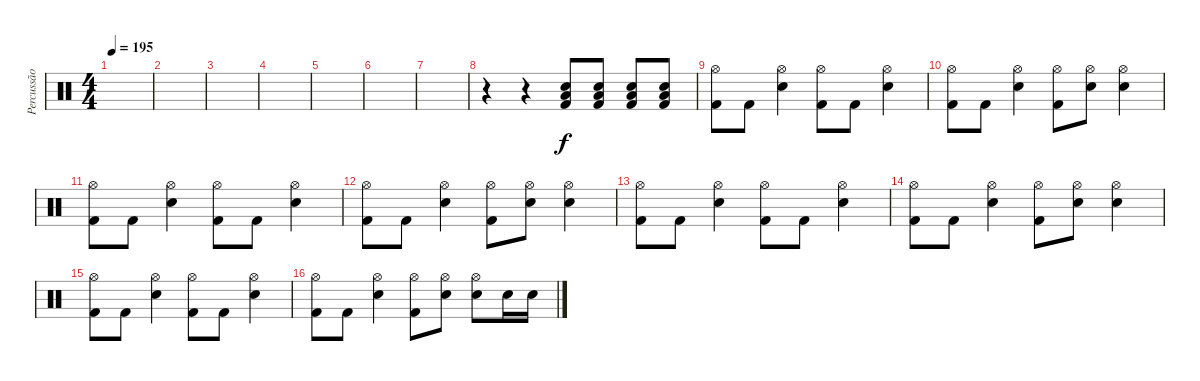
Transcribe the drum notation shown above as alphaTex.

\track ("Percussão" "Percussão") {instrument percussion}
\staff {score}
\articulation defaults
\ts (4 4)
\tempo 195
\clef neutral
\ks c
|
|
|
|
|
|
|
r.4 r.4 ("Low Floor Tom (hit)" "Electric Snare (hit)" "Kick (hit) 2").8 ("Low Floor Tom (hit)" "Electric Snare (hit)" "Kick (hit) 2").8 ("Low Floor Tom (hit)" "Electric Snare (hit)" "Kick (hit) 2").8 ("Low Floor Tom (hit)" "Electric Snare (hit)" "Kick (hit) 2").8 |
("Hi-Hat (open)" "Kick (hit) 2").8 "Kick (hit) 2".8 ("Hi-Hat (open)" "Electric Snare (hit)").4 ("Hi-Hat (open)" "Kick (hit) 2").8 "Kick (hit) 2".8 ("Hi-Hat (open)" "Electric Snare (hit)").4 |
("Hi-Hat (open)" "Kick (hit) 2").8 "Kick (hit) 2".8 ("Hi-Hat (open)" "Electric Snare (hit)").4 ("Hi-Hat (open)" "Kick (hit) 2").8 ("Hi-Hat (open)" "Electric Snare (hit)").8 ("Hi-Hat (open)" "Electric Snare (hit)").4 |
("Hi-Hat (open)" "Kick (hit) 2").8 "Kick (hit) 2".8 ("Hi-Hat (open)" "Electric Snare (hit)").4 ("Hi-Hat (open)" "Kick (hit) 2").8 "Kick (hit) 2".8 ("Hi-Hat (open)" "Electric Snare (hit)").4 |
("Hi-Hat (open)" "Kick (hit) 2").8 "Kick (hit) 2".8 ("Hi-Hat (open)" "Electric Snare (hit)").4 ("Hi-Hat (open)" "Kick (hit) 2").8 ("Hi-Hat (open)" "Electric Snare (hit)").8 ("Hi-Hat (open)" "Electric Snare (hit)").4 |
("Hi-Hat (open)" "Kick (hit) 2").8 "Kick (hit) 2".8 ("Hi-Hat (open)" "Electric Snare (hit)").4 ("Hi-Hat (open)" "Kick (hit) 2").8 "Kick (hit) 2".8 ("Hi-Hat (open)" "Electric Snare (hit)").4 |
("Hi-Hat (open)" "Kick (hit) 2").8 "Kick (hit) 2".8 ("Hi-Hat (open)" "Electric Snare (hit)").4 ("Hi-Hat (open)" "Kick (hit) 2").8 ("Hi-Hat (open)" "Electric Snare (hit)").8 ("Hi-Hat (open)" "Electric Snare (hit)").4 |
("Hi-Hat (open)" "Kick (hit) 2").8 "Kick (hit) 2".8 ("Hi-Hat (open)" "Electric Snare (hit)").4 ("Hi-Hat (open)" "Kick (hit) 2").8 "Kick (hit) 2".8 ("Hi-Hat (open)" "Electric Snare (hit)").4 |
("Hi-Hat (open)" "Kick (hit) 2").8 "Kick (hit) 2".8 ("Hi-Hat (open)" "Electric Snare (hit)").4 ("Hi-Hat (open)" "Kick (hit) 2").8 ("Hi-Hat (open)" "Electric Snare (hit)").8 ("Hi-Hat (open)" "Electric Snare (hit)").8 "Electric Snare (hit)".16 "Electric Snare (hit)".16
